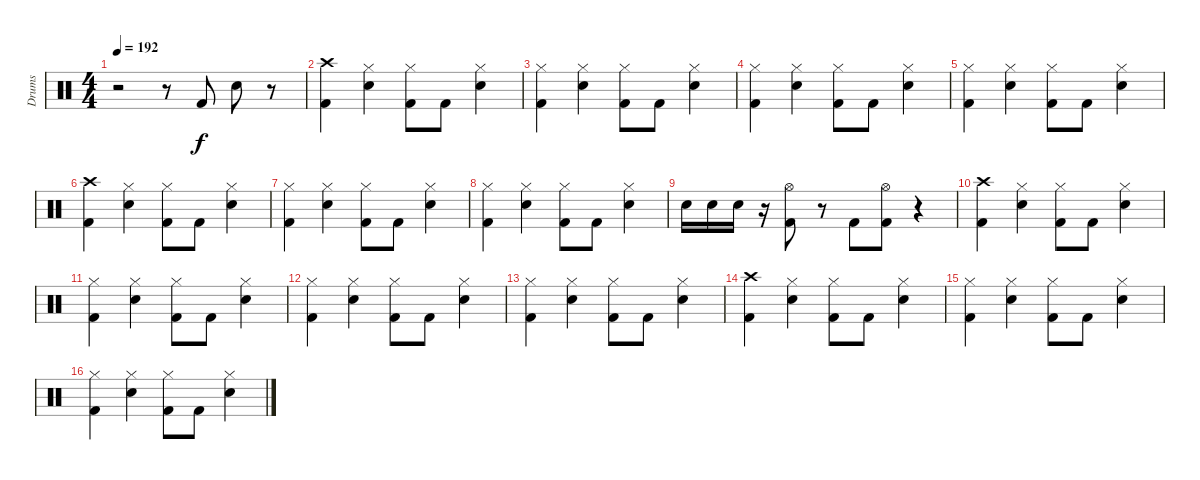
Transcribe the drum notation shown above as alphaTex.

\track ("Drums" "Drums") {instrument percussion}
\staff {score}
\articulation defaults
\ts (4 4)
\tempo 192
\clef neutral
\ks c
r.2{dy f} r.8 "Kick (hit) 2".8 "Electric Snare (hit)".8 r.8 |
("Kick (hit) 2" "Crash high (hit)").4 ("Electric Snare (hit)" "Hi-Hat (closed)").4 ("Kick (hit) 2" "Hi-Hat (closed)").8 "Kick (hit) 2".8 ("Electric Snare (hit)" "Hi-Hat (closed)").4 |
("Kick (hit) 2" "Hi-Hat (closed)").4 ("Electric Snare (hit)" "Hi-Hat (closed)").4 ("Kick (hit) 2" "Hi-Hat (closed)").8 "Kick (hit) 2".8 ("Electric Snare (hit)" "Hi-Hat (closed)").4 |
("Kick (hit) 2" "Hi-Hat (closed)").4 ("Electric Snare (hit)" "Hi-Hat (closed)").4 ("Kick (hit) 2" "Hi-Hat (closed)").8 "Kick (hit) 2".8 ("Electric Snare (hit)" "Hi-Hat (closed)").4 |
("Kick (hit) 2" "Hi-Hat (closed)").4 ("Electric Snare (hit)" "Hi-Hat (closed)").4 ("Kick (hit) 2" "Hi-Hat (closed)").8 "Kick (hit) 2".8 ("Electric Snare (hit)" "Hi-Hat (closed)").4 |
("Kick (hit) 2" "Crash high (hit)").4 ("Electric Snare (hit)" "Hi-Hat (closed)").4 ("Kick (hit) 2" "Hi-Hat (closed)").8 "Kick (hit) 2".8 ("Electric Snare (hit)" "Hi-Hat (closed)").4 |
("Kick (hit) 2" "Hi-Hat (closed)").4 ("Electric Snare (hit)" "Hi-Hat (closed)").4 ("Kick (hit) 2" "Hi-Hat (closed)").8 "Kick (hit) 2".8 ("Electric Snare (hit)" "Hi-Hat (closed)").4 |
("Kick (hit) 2" "Hi-Hat (closed)").4 ("Electric Snare (hit)" "Hi-Hat (closed)").4 ("Kick (hit) 2" "Hi-Hat (closed)").8 "Kick (hit) 2".8 ("Electric Snare (hit)" "Hi-Hat (closed)").4 |
"Snare (hit) 2".16 "Snare (hit) 2".16 "Electric Snare (hit)".16 r.16 ("Hi-Hat (open)" "Kick (hit) 2").8 r.8 "Kick (hit) 2".8 ("Hi-Hat (open)" "Kick (hit) 2").8 r.4 |
("Kick (hit) 2" "Crash high (hit)").4 ("Electric Snare (hit)" "Hi-Hat (closed)").4 ("Kick (hit) 2" "Hi-Hat (closed)").8 "Kick (hit) 2".8 ("Electric Snare (hit)" "Hi-Hat (closed)").4 |
("Kick (hit) 2" "Hi-Hat (closed)").4 ("Electric Snare (hit)" "Hi-Hat (closed)").4 ("Kick (hit) 2" "Hi-Hat (closed)").8 "Kick (hit) 2".8 ("Electric Snare (hit)" "Hi-Hat (closed)").4 |
("Kick (hit) 2" "Hi-Hat (closed)").4 ("Electric Snare (hit)" "Hi-Hat (closed)").4 ("Kick (hit) 2" "Hi-Hat (closed)").8 "Kick (hit) 2".8 ("Electric Snare (hit)" "Hi-Hat (closed)").4 |
("Kick (hit) 2" "Hi-Hat (closed)").4 ("Electric Snare (hit)" "Hi-Hat (closed)").4 ("Kick (hit) 2" "Hi-Hat (closed)").8 "Kick (hit) 2".8 ("Electric Snare (hit)" "Hi-Hat (closed)").4 |
("Kick (hit) 2" "Crash high (hit)").4 ("Electric Snare (hit)" "Hi-Hat (closed)").4 ("Kick (hit) 2" "Hi-Hat (closed)").8 "Kick (hit) 2".8 ("Electric Snare (hit)" "Hi-Hat (closed)").4 |
("Kick (hit) 2" "Hi-Hat (closed)").4 ("Electric Snare (hit)" "Hi-Hat (closed)").4 ("Kick (hit) 2" "Hi-Hat (closed)").8 "Kick (hit) 2".8 ("Electric Snare (hit)" "Hi-Hat (closed)").4 |
("Kick (hit) 2" "Hi-Hat (closed)").4 ("Electric Snare (hit)" "Hi-Hat (closed)").4 ("Kick (hit) 2" "Hi-Hat (closed)").8 "Kick (hit) 2".8 ("Electric Snare (hit)" "Hi-Hat (closed)").4
